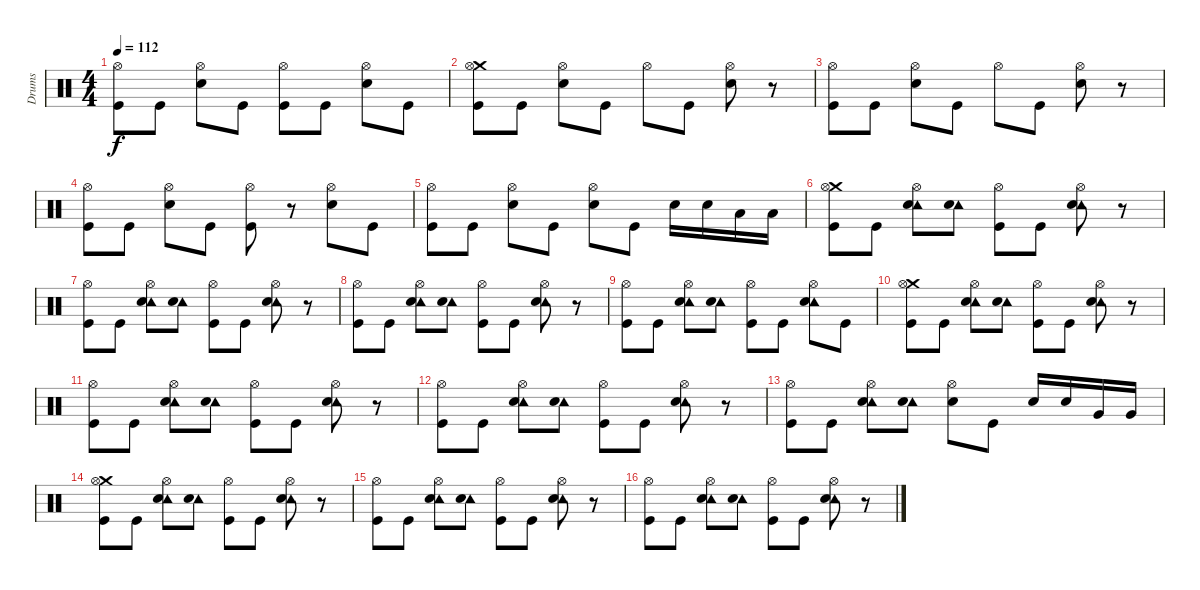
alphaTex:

\track ("Drums" "Drums") {instrument percussion}
\staff {score}
\articulation defaults
\ts (4 4)
\tempo 112
\clef neutral
\ks c
("Hi-Hat (open)" "Kick (hit)").8{dy f} "Kick (hit)".8 ("Hi-Hat (open)" "Snare (hit) 2").8 "Kick (hit)".8 ("Hi-Hat (open)" "Kick (hit)").8 "Kick (hit)".8 ("Hi-Hat (open)" "Snare (hit) 2").8 "Kick (hit)".8 |
("Crash medium (hit)" "Hi-Hat (open)" "Kick (hit)").8 "Kick (hit)".8 ("Hi-Hat (open)" "Snare (hit) 2").8 "Kick (hit)".8 "Hi-Hat (open)".8 "Kick (hit)".8 ("Hi-Hat (open)" "Snare (hit) 2").8 r.8 |
("Hi-Hat (open)" "Kick (hit)").8 "Kick (hit)".8 ("Hi-Hat (open)" "Snare (hit) 2").8 "Kick (hit)".8 "Hi-Hat (open)".8 "Kick (hit)".8 ("Hi-Hat (open)" "Snare (hit) 2").8 r.8 |
("Hi-Hat (open)" "Kick (hit)").8 "Kick (hit)".8 ("Hi-Hat (open)" "Snare (hit) 2").8 "Kick (hit)".8 ("Hi-Hat (open)" "Kick (hit)").8 r.8 ("Hi-Hat (open)" "Snare (hit) 2").8 "Kick (hit)".8 |
("Hi-Hat (open)" "Kick (hit)").8 "Kick (hit)".8 ("Hi-Hat (open)" "Snare (hit) 2").8 "Kick (hit)".8 ("Hi-Hat (open)" "Snare (hit) 2").8 "Kick (hit)".8 "Snare (hit) 2".16 "Snare (hit) 2".16 "Low Floor Tom (hit)".16 "Low Floor Tom (hit)".16 |
("Crash medium (hit)" "Hi-Hat (open)" "Kick (hit)").8 "Kick (hit)".8 ("Tambourine (hit)" "Hi-Hat (open)" "Snare (hit) 2").8 ("Tambourine (hit)" "Snare (hit) 2").8 ("Hi-Hat (open)" "Kick (hit)").8 "Kick (hit)".8 ("Tambourine (hit)" "Hi-Hat (open)" "Snare (hit) 2").8 r.8 |
("Hi-Hat (open)" "Kick (hit)").8 "Kick (hit)".8 ("Tambourine (hit)" "Hi-Hat (open)" "Snare (hit) 2").8 ("Tambourine (hit)" "Snare (hit) 2").8 ("Hi-Hat (open)" "Kick (hit)").8 "Kick (hit)".8 ("Tambourine (hit)" "Hi-Hat (open)" "Snare (hit) 2").8 r.8 |
("Hi-Hat (open)" "Kick (hit)").8 "Kick (hit)".8 ("Tambourine (hit)" "Hi-Hat (open)" "Snare (hit) 2").8 ("Tambourine (hit)" "Snare (hit) 2").8 ("Hi-Hat (open)" "Kick (hit)").8 "Kick (hit)".8 ("Tambourine (hit)" "Hi-Hat (open)" "Snare (hit) 2").8 r.8 |
("Hi-Hat (open)" "Kick (hit)").8 "Kick (hit)".8 ("Tambourine (hit)" "Hi-Hat (open)" "Snare (hit) 2").8 ("Tambourine (hit)" "Snare (hit) 2").8 ("Hi-Hat (open)" "Kick (hit)").8 "Kick (hit)".8 ("Tambourine (hit)" "Hi-Hat (open)" "Snare (hit) 2").8 "Kick (hit)".8 |
("Crash medium (hit)" "Hi-Hat (open)" "Kick (hit)").8 "Kick (hit)".8 ("Tambourine (hit)" "Hi-Hat (open)" "Snare (hit) 2").8 ("Tambourine (hit)" "Snare (hit) 2").8 ("Hi-Hat (open)" "Kick (hit)").8 "Kick (hit)".8 ("Tambourine (hit)" "Hi-Hat (open)" "Snare (hit) 2").8 r.8 |
("Hi-Hat (open)" "Kick (hit)").8 "Kick (hit)".8 ("Tambourine (hit)" "Hi-Hat (open)" "Snare (hit) 2").8 ("Tambourine (hit)" "Snare (hit) 2").8 ("Hi-Hat (open)" "Kick (hit)").8 "Kick (hit)".8 ("Tambourine (hit)" "Hi-Hat (open)" "Snare (hit) 2").8 r.8 |
("Hi-Hat (open)" "Kick (hit)").8 "Kick (hit)".8 ("Tambourine (hit)" "Hi-Hat (open)" "Snare (hit) 2").8 ("Tambourine (hit)" "Snare (hit) 2").8 ("Hi-Hat (open)" "Kick (hit)").8 "Kick (hit)".8 ("Tambourine (hit)" "Hi-Hat (open)" "Snare (hit) 2").8 r.8 |
("Hi-Hat (open)" "Kick (hit)").8 "Kick (hit)".8 ("Tambourine (hit)" "Hi-Hat (open)" "Snare (hit) 2").8 ("Tambourine (hit)" "Snare (hit) 2").8 ("Hi-Hat (open)" "Snare (hit) 2").8 "Kick (hit)".8 "Snare (hit) 2".16 "Snare (hit) 2".16 "Very Low Tom (hit)".16 "Very Low Tom (hit)".16 |
("Crash medium (hit)" "Hi-Hat (open)" "Kick (hit)").8 "Kick (hit)".8 ("Tambourine (hit)" "Hi-Hat (open)" "Snare (hit) 2").8 ("Tambourine (hit)" "Snare (hit) 2").8 ("Hi-Hat (open)" "Kick (hit)").8 "Kick (hit)".8 ("Tambourine (hit)" "Hi-Hat (open)" "Snare (hit) 2").8 r.8 |
("Hi-Hat (open)" "Kick (hit)").8 "Kick (hit)".8 ("Tambourine (hit)" "Hi-Hat (open)" "Snare (hit) 2").8 ("Tambourine (hit)" "Snare (hit) 2").8 ("Hi-Hat (open)" "Kick (hit)").8 "Kick (hit)".8 ("Tambourine (hit)" "Hi-Hat (open)" "Snare (hit) 2").8 r.8 |
("Hi-Hat (open)" "Kick (hit)").8 "Kick (hit)".8 ("Tambourine (hit)" "Hi-Hat (open)" "Snare (hit) 2").8 ("Tambourine (hit)" "Snare (hit) 2").8 ("Hi-Hat (open)" "Kick (hit)").8 "Kick (hit)".8 ("Tambourine (hit)" "Hi-Hat (open)" "Snare (hit) 2").8 r.8
